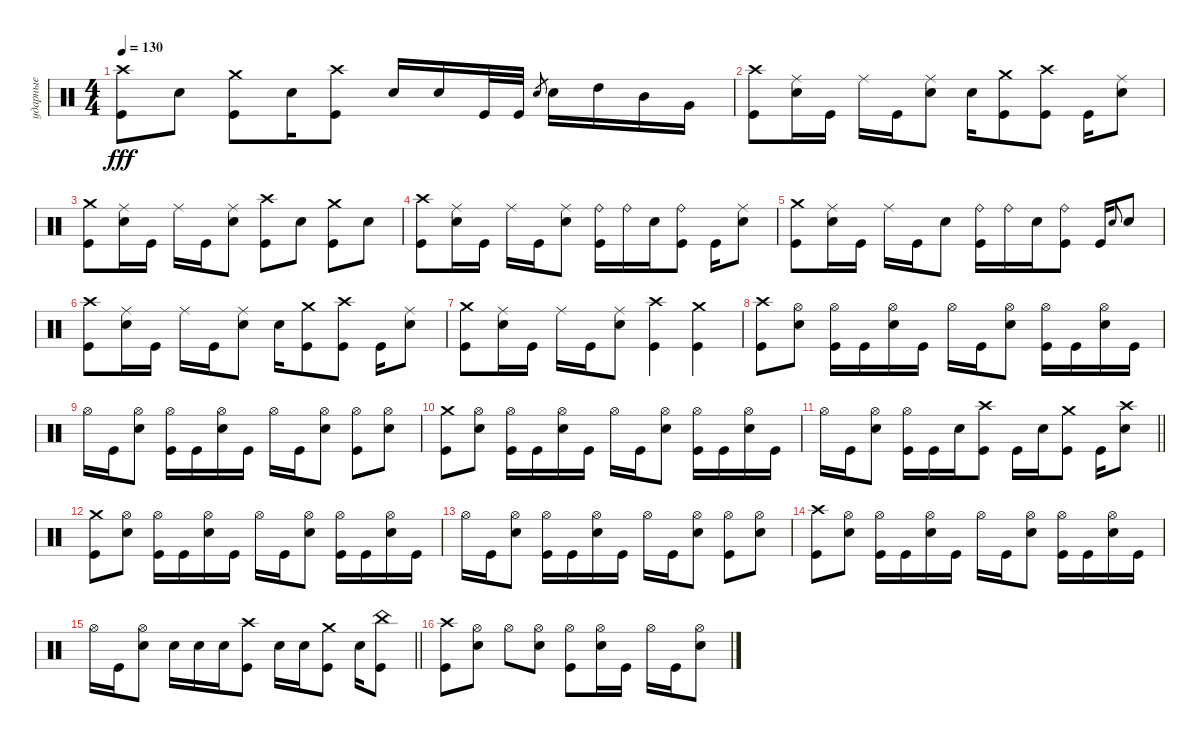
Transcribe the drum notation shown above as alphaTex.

\track ("ударные" "ударные") {instrument percussion}
\staff {score}
\articulation defaults
\ts (4 4)
\tempo 130
\clef neutral
\ks c
("Crash high (hit)" "Kick (hit)").8{dy fff} "Snare (hit) 2".8 ("Crash medium (hit)" "Kick (hit)").8 "Snare (hit) 2".16 ("Crash high (hit)" "Kick (hit)").8 "Snare (hit) 2".16 "Snare (hit) 2".16 "Kick (hit)".32 "Kick (hit)".32 "Snare (hit)".8{gr} "Snare (hit) 2".16 "High Tom (hit)".16 "Mid Tom (hit)".16 "Very Low Tom (hit)".16 |
("Crash high (hit)" "Kick (hit)").8 ("Ride (middle)" "Snare (hit) 2").16 "Kick (hit)".16 "Ride (middle)".16 "Kick (hit)".16 ("Ride (middle)" "Snare (hit) 2").8 "Snare (hit) 2".16 ("Crash medium (hit)" "Kick (hit)").8 ("Crash high (hit)" "Kick (hit)").8 "Kick (hit)".16 ("Ride (middle)" "Snare (hit) 2").8 |
("Crash medium (hit)" "Kick (hit)").8 ("Ride (middle)" "Snare (hit) 2").16 "Kick (hit)".16 "Ride (middle)".16 "Kick (hit)".16 ("Ride (middle)" "Snare (hit) 2").8 ("Crash high (hit)" "Kick (hit)").8 "Snare (hit) 2".8 ("Crash medium (hit)" "Kick (hit)").8 "Snare (hit) 2".8 |
("Crash high (hit)" "Kick (hit)").8 ("Ride (middle)" "Snare (hit) 2").16 "Kick (hit)".16 "Ride (middle)".16 "Kick (hit)".16 ("Ride (middle)" "Snare (hit) 2").8 ("Ride (bell)" "Kick (hit)").16 "Ride (bell)".16 "Snare (hit) 2".16 ("Ride (bell)" "Kick (hit)").8 "Kick (hit)".16 ("Ride (middle)" "Snare (hit) 2").8 |
("Crash medium (hit)" "Kick (hit)").8 ("Ride (middle)" "Snare (hit) 2").16 "Kick (hit)".16 "Ride (middle)".16 "Kick (hit)".16 "Snare (hit) 2".8 ("Ride (bell)" "Kick (hit)").16 "Ride (bell)".16 "Snare (hit) 2".16 ("Ride (bell)" "Kick (hit)").8 "Kick (hit)".16 "Snare (hit)".8{gr onbeat} "Snare (hit) 2".8 |
("Crash high (hit)" "Kick (hit)").8 ("Ride (middle)" "Snare (hit) 2").16 "Kick (hit)".16 "Ride (middle)".16 "Kick (hit)".16 ("Ride (middle)" "Snare (hit) 2").8 "Snare (hit) 2".16 ("Crash medium (hit)" "Kick (hit)").8 ("Crash high (hit)" "Kick (hit)").8 "Kick (hit)".16 ("Ride (middle)" "Snare (hit) 2").8 |
("Crash medium (hit)" "Kick (hit)").8 ("Ride (middle)" "Snare (hit) 2").16 "Kick (hit)".16 "Ride (middle)".16 "Kick (hit)".16 ("Ride (middle)" "Snare (hit) 2").8 ("Crash high (hit)" "Kick (hit)").4 ("Crash medium (hit)" "Kick (hit)").4 |
("Crash high (hit)" "Kick (hit)").8 ("Hi-Hat (open)" "Snare (hit) 2").8 ("Hi-Hat (open)" "Kick (hit)").16 "Kick (hit)".16 ("Hi-Hat (open)" "Snare (hit) 2").16 "Kick (hit)".16 "Hi-Hat (open)".16 "Kick (hit)".16 ("Hi-Hat (open)" "Snare (hit) 2").8 ("Hi-Hat (open)" "Kick (hit)").16 "Kick (hit)".16 ("Hi-Hat (open)" "Snare (hit) 2").16 "Kick (hit)".16 |
"Hi-Hat (open)".16 "Kick (hit)".16 ("Hi-Hat (open)" "Snare (hit) 2").8 ("Hi-Hat (open)" "Kick (hit)").16 "Kick (hit)".16 ("Hi-Hat (open)" "Snare (hit) 2").16 "Kick (hit)".16 "Hi-Hat (open)".16 "Kick (hit)".16 ("Hi-Hat (open)" "Snare (hit) 2").8 ("Hi-Hat (open)" "Kick (hit)").8 ("Hi-Hat (open)" "Snare (hit) 2").8 |
("Crash medium (hit)" "Kick (hit)").8 ("Hi-Hat (open)" "Snare (hit) 2").8 ("Hi-Hat (open)" "Kick (hit)").16 "Kick (hit)".16 ("Hi-Hat (open)" "Snare (hit) 2").16 "Kick (hit)".16 "Hi-Hat (open)".16 "Kick (hit)".16 ("Hi-Hat (open)" "Snare (hit) 2").8 ("Hi-Hat (open)" "Kick (hit)").16 "Kick (hit)".16 ("Hi-Hat (open)" "Snare (hit) 2").16 "Kick (hit)".16 |
\barLineRight lightlight "Hi-Hat (open)".16 "Kick (hit)".16
("Hi-Hat (open)" "Snare (hit) 2").8 ("Hi-Hat (open)" "Kick (hit)").16 "Kick (hit)".16 "Snare (hit) 2".16 ("Crash high (hit)" "Kick (hit)").8 "Kick (hit)".16 "Snare (hit) 2".16 ("Crash medium (hit)" "Kick (hit)").8 "Kick (hit)".16 ("Crash high (hit)" "Snare (hit) 2").8 |
("Crash medium (hit)" "Kick (hit)").8 ("Hi-Hat (open)" "Snare (hit) 2").8 ("Hi-Hat (open)" "Kick (hit)").16 "Kick (hit)".16 ("Hi-Hat (open)" "Snare (hit) 2").16 "Kick (hit)".16 "Hi-Hat (open)".16 "Kick (hit)".16 ("Hi-Hat (open)" "Snare (hit) 2").8 ("Hi-Hat (open)" "Kick (hit)").16 "Kick (hit)".16 ("Hi-Hat (open)" "Snare (hit) 2").16 "Kick (hit)".16 |
"Hi-Hat (open)".16 "Kick (hit)".16 ("Hi-Hat (open)" "Snare (hit) 2").8 ("Hi-Hat (open)" "Kick (hit)").16 "Kick (hit)".16 ("Hi-Hat (open)" "Snare (hit) 2").16 "Kick (hit)".16 "Hi-Hat (open)".16 "Kick (hit)".16 ("Hi-Hat (open)" "Snare (hit) 2").8 ("Hi-Hat (open)" "Kick (hit)").8 ("Hi-Hat (open)" "Snare (hit) 2").8 |
("Crash high (hit)" "Kick (hit)").8 ("Hi-Hat (open)" "Snare (hit) 2").8 ("Hi-Hat (open)" "Kick (hit)").16 "Kick (hit)".16 ("Hi-Hat (open)" "Snare (hit) 2").16 "Kick (hit)".16 "Hi-Hat (open)".16 "Kick (hit)".16 ("Hi-Hat (open)" "Snare (hit) 2").8 ("Hi-Hat (open)" "Kick (hit)").16 "Kick (hit)".16 ("Hi-Hat (open)" "Snare (hit) 2").16 "Kick (hit)".16 |
\barLineRight lightlight "Hi-Hat (open)".16 "Kick (hit)".16
("Hi-Hat (open)" "Snare (hit) 2").8 "Snare (hit) 2".16 "Snare (hit) 2".16 "Snare (hit) 2".16 ("Crash high (hit)" "Kick (hit)").8 "Snare (hit) 2".16 "Snare (hit) 2".16 ("Crash medium (hit)" "Kick (hit)").8 "Snare (hit) 2".16 ("China (hit)" "Kick (hit)").8 |
("Crash high (hit)" "Kick (hit)").8 ("Hi-Hat (open)" "Snare (hit) 2").8 "Hi-Hat (open)".8 ("Hi-Hat (open)" "Snare (hit) 2").8 ("Hi-Hat (open)" "Kick (hit)").8 ("Hi-Hat (open)" "Snare (hit) 2").16 "Kick (hit)".16 "Hi-Hat (open)".16 "Kick (hit)".16 ("Hi-Hat (open)" "Snare (hit) 2").8
